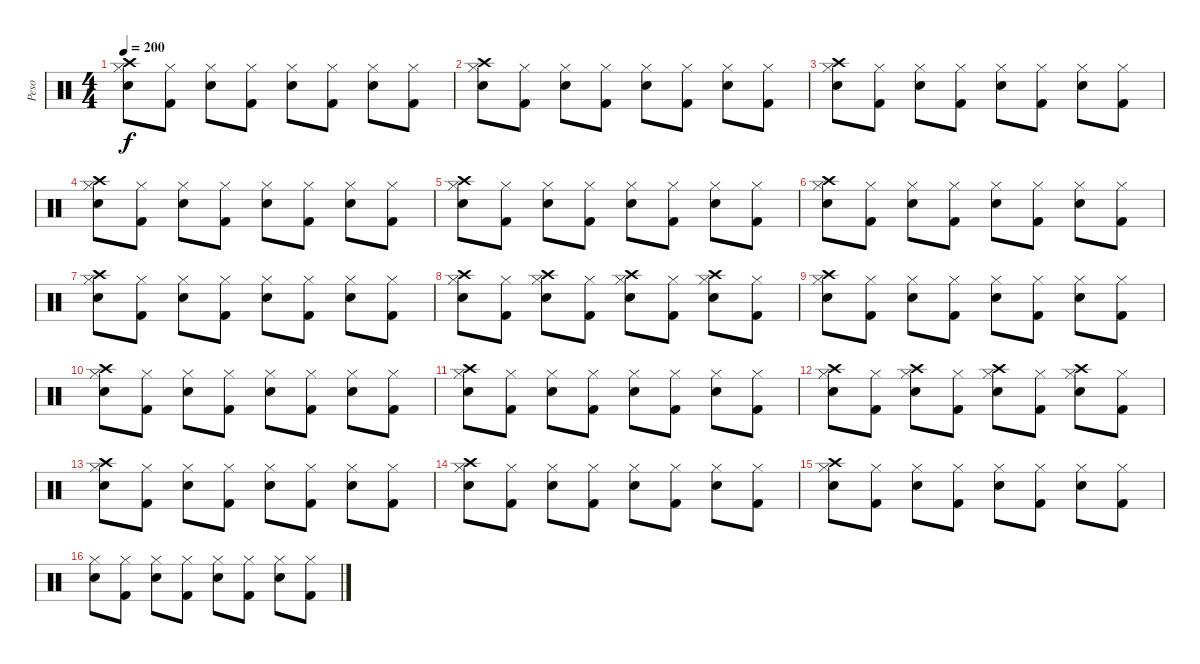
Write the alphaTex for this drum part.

\track ("Peso" "Peso") {instrument percussion}
\staff {score}
\articulation defaults
\ts (4 4)
\tempo 200
\clef neutral
\ks c
("Crash high (hit)" "Hi-Hat (closed)" "Snare (hit) 2").8{dy f} ("Hi-Hat (closed)" "Kick (hit) 2").8 ("Hi-Hat (closed)" "Snare (hit) 2").8 ("Hi-Hat (closed)" "Kick (hit) 2").8 ("Hi-Hat (closed)" "Snare (hit) 2").8 ("Hi-Hat (closed)" "Kick (hit) 2").8 ("Hi-Hat (closed)" "Snare (hit) 2").8 ("Hi-Hat (closed)" "Kick (hit) 2").8 |
("Crash high (hit)" "Hi-Hat (closed)" "Snare (hit) 2").8 ("Hi-Hat (closed)" "Kick (hit) 2").8 ("Hi-Hat (closed)" "Snare (hit) 2").8 ("Hi-Hat (closed)" "Kick (hit) 2").8 ("Hi-Hat (closed)" "Snare (hit) 2").8 ("Hi-Hat (closed)" "Kick (hit) 2").8 ("Hi-Hat (closed)" "Snare (hit) 2").8 ("Hi-Hat (closed)" "Kick (hit) 2").8 |
("Crash high (hit)" "Hi-Hat (closed)" "Snare (hit) 2").8 ("Hi-Hat (closed)" "Kick (hit) 2").8 ("Hi-Hat (closed)" "Snare (hit) 2").8 ("Hi-Hat (closed)" "Kick (hit) 2").8 ("Hi-Hat (closed)" "Snare (hit) 2").8 ("Hi-Hat (closed)" "Kick (hit) 2").8 ("Hi-Hat (closed)" "Snare (hit) 2").8 ("Hi-Hat (closed)" "Kick (hit) 2").8 |
("Crash high (hit)" "Hi-Hat (closed)" "Snare (hit) 2").8 ("Hi-Hat (closed)" "Kick (hit) 2").8 ("Hi-Hat (closed)" "Snare (hit) 2").8 ("Hi-Hat (closed)" "Kick (hit) 2").8 ("Hi-Hat (closed)" "Snare (hit) 2").8 ("Hi-Hat (closed)" "Kick (hit) 2").8 ("Hi-Hat (closed)" "Snare (hit) 2").8 ("Hi-Hat (closed)" "Kick (hit) 2").8 |
("Crash high (hit)" "Hi-Hat (closed)" "Snare (hit) 2").8 ("Hi-Hat (closed)" "Kick (hit) 2").8 ("Hi-Hat (closed)" "Snare (hit) 2").8 ("Hi-Hat (closed)" "Kick (hit) 2").8 ("Hi-Hat (closed)" "Snare (hit) 2").8 ("Hi-Hat (closed)" "Kick (hit) 2").8 ("Hi-Hat (closed)" "Snare (hit) 2").8 ("Hi-Hat (closed)" "Kick (hit) 2").8 |
("Crash high (hit)" "Hi-Hat (closed)" "Snare (hit) 2").8 ("Hi-Hat (closed)" "Kick (hit) 2").8 ("Hi-Hat (closed)" "Snare (hit) 2").8 ("Hi-Hat (closed)" "Kick (hit) 2").8 ("Hi-Hat (closed)" "Snare (hit) 2").8 ("Hi-Hat (closed)" "Kick (hit) 2").8 ("Hi-Hat (closed)" "Snare (hit) 2").8 ("Hi-Hat (closed)" "Kick (hit) 2").8 |
("Crash high (hit)" "Hi-Hat (closed)" "Snare (hit) 2").8 ("Hi-Hat (closed)" "Kick (hit) 2").8 ("Hi-Hat (closed)" "Snare (hit) 2").8 ("Hi-Hat (closed)" "Kick (hit) 2").8 ("Hi-Hat (closed)" "Snare (hit) 2").8 ("Hi-Hat (closed)" "Kick (hit) 2").8 ("Hi-Hat (closed)" "Snare (hit) 2").8 ("Hi-Hat (closed)" "Kick (hit) 2").8 |
("Crash high (hit)" "Hi-Hat (closed)" "Snare (hit) 2").8 ("Hi-Hat (closed)" "Kick (hit) 2").8 ("Crash high (hit)" "Hi-Hat (closed)" "Snare (hit) 2").8 ("Hi-Hat (closed)" "Kick (hit) 2").8 ("Crash high (hit)" "Hi-Hat (closed)" "Snare (hit) 2").8 ("Hi-Hat (closed)" "Kick (hit) 2").8 ("Crash high (hit)" "Hi-Hat (closed)" "Snare (hit) 2").8 ("Hi-Hat (closed)" "Kick (hit) 2").8 |
("Crash high (hit)" "Hi-Hat (closed)" "Snare (hit) 2").8 ("Hi-Hat (closed)" "Kick (hit) 2").8 ("Hi-Hat (closed)" "Snare (hit) 2").8 ("Hi-Hat (closed)" "Kick (hit) 2").8 ("Hi-Hat (closed)" "Snare (hit) 2").8 ("Hi-Hat (closed)" "Kick (hit) 2").8 ("Hi-Hat (closed)" "Snare (hit) 2").8 ("Hi-Hat (closed)" "Kick (hit) 2").8 |
("Crash high (hit)" "Hi-Hat (closed)" "Snare (hit) 2").8 ("Hi-Hat (closed)" "Kick (hit) 2").8 ("Hi-Hat (closed)" "Snare (hit) 2").8 ("Hi-Hat (closed)" "Kick (hit) 2").8 ("Hi-Hat (closed)" "Snare (hit) 2").8 ("Hi-Hat (closed)" "Kick (hit) 2").8 ("Hi-Hat (closed)" "Snare (hit) 2").8 ("Hi-Hat (closed)" "Kick (hit) 2").8 |
("Crash high (hit)" "Hi-Hat (closed)" "Snare (hit) 2").8 ("Hi-Hat (closed)" "Kick (hit) 2").8 ("Hi-Hat (closed)" "Snare (hit) 2").8 ("Hi-Hat (closed)" "Kick (hit) 2").8 ("Hi-Hat (closed)" "Snare (hit) 2").8 ("Hi-Hat (closed)" "Kick (hit) 2").8 ("Hi-Hat (closed)" "Snare (hit) 2").8 ("Hi-Hat (closed)" "Kick (hit) 2").8 |
("Crash high (hit)" "Hi-Hat (closed)" "Snare (hit) 2").8 ("Hi-Hat (closed)" "Kick (hit) 2").8 ("Crash high (hit)" "Hi-Hat (closed)" "Snare (hit) 2").8 ("Hi-Hat (closed)" "Kick (hit) 2").8 ("Crash high (hit)" "Hi-Hat (closed)" "Snare (hit) 2").8 ("Hi-Hat (closed)" "Kick (hit) 2").8 ("Crash high (hit)" "Hi-Hat (closed)" "Snare (hit) 2").8 ("Hi-Hat (closed)" "Kick (hit) 2").8 |
("Crash high (hit)" "Hi-Hat (closed)" "Snare (hit) 2").8 ("Hi-Hat (closed)" "Kick (hit) 2").8 ("Hi-Hat (closed)" "Snare (hit) 2").8 ("Hi-Hat (closed)" "Kick (hit) 2").8 ("Hi-Hat (closed)" "Snare (hit) 2").8 ("Hi-Hat (closed)" "Kick (hit) 2").8 ("Hi-Hat (closed)" "Snare (hit) 2").8 ("Hi-Hat (closed)" "Kick (hit) 2").8 |
("Crash high (hit)" "Hi-Hat (closed)" "Snare (hit) 2").8 ("Hi-Hat (closed)" "Kick (hit) 2").8 ("Hi-Hat (closed)" "Snare (hit) 2").8 ("Hi-Hat (closed)" "Kick (hit) 2").8 ("Hi-Hat (closed)" "Snare (hit) 2").8 ("Hi-Hat (closed)" "Kick (hit) 2").8 ("Hi-Hat (closed)" "Snare (hit) 2").8 ("Hi-Hat (closed)" "Kick (hit) 2").8 |
("Crash high (hit)" "Hi-Hat (closed)" "Snare (hit) 2").8 ("Hi-Hat (closed)" "Kick (hit) 2").8 ("Hi-Hat (closed)" "Snare (hit) 2").8 ("Hi-Hat (closed)" "Kick (hit) 2").8 ("Hi-Hat (closed)" "Snare (hit) 2").8 ("Hi-Hat (closed)" "Kick (hit) 2").8 ("Hi-Hat (closed)" "Snare (hit) 2").8 ("Hi-Hat (closed)" "Kick (hit) 2").8 |
("Hi-Hat (closed)" "Snare (hit) 2").8 ("Hi-Hat (closed)" "Kick (hit) 2").8 ("Hi-Hat (closed)" "Snare (hit) 2").8 ("Hi-Hat (closed)" "Kick (hit) 2").8 ("Hi-Hat (closed)" "Snare (hit) 2").8 ("Hi-Hat (closed)" "Kick (hit) 2").8 ("Hi-Hat (closed)" "Snare (hit) 2").8 ("Hi-Hat (closed)" "Kick (hit) 2").8
